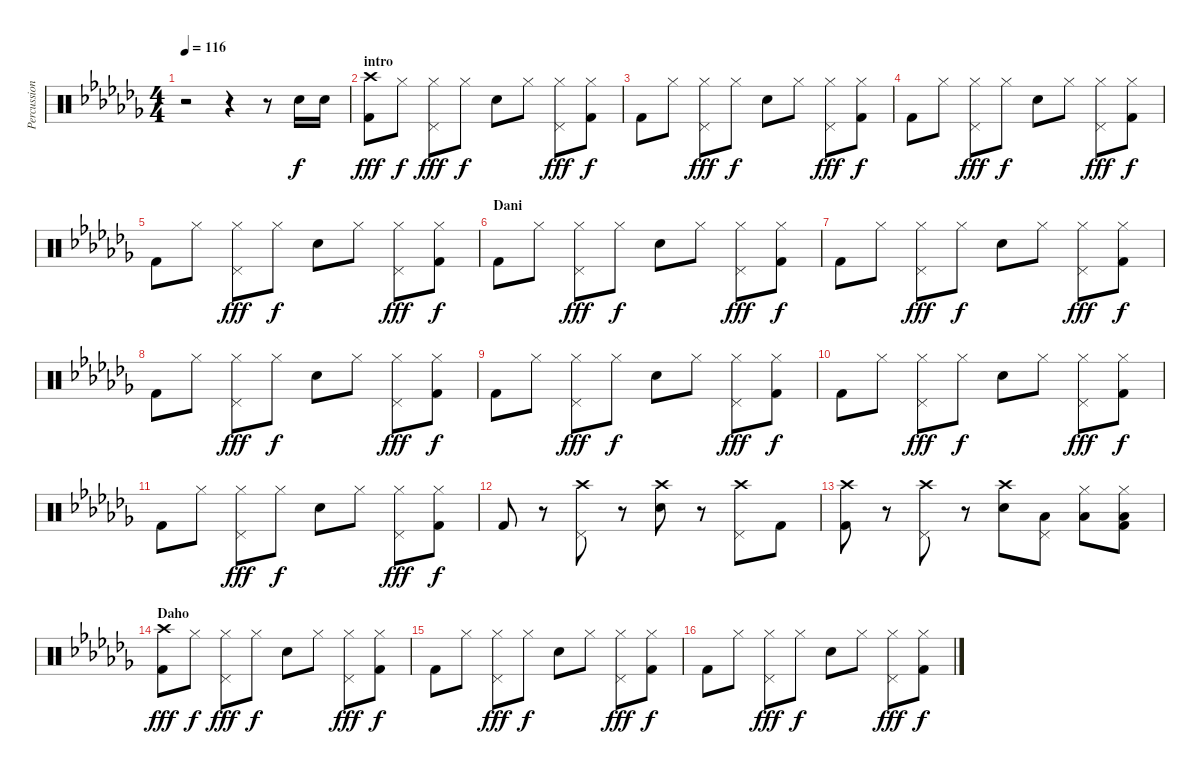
\track ("Percussions" "Percussion") {instrument percussion}
\staff {score}
\articulation defaults
\ts (4 4)
\tempo 116
\clef neutral
\ks abminor
r.2{dy f} r.4 r.8 "Snare (hit) 2".16 "Snare (hit) 2".16 |
\section ("" "intro")
("Crash high (hit)" "Kick (hit) 2").8{dy fff} "Hi-Hat (closed)".8{dy f} ("Hi-Hat (closed)" "Pedal Hi-Hat (hit)").8{dy fff} "Hi-Hat (closed)".8{dy f} "Snare (hit) 2".8 "Hi-Hat (closed)".8 ("Hi-Hat (closed)" "Pedal Hi-Hat (hit)").8{dy fff} ("Hi-Hat (closed)" "Kick (hit) 2").8{dy f} |
"Kick (hit) 2".8 "Hi-Hat (closed)".8 ("Hi-Hat (closed)" "Pedal Hi-Hat (hit)").8{dy fff} "Hi-Hat (closed)".8{dy f} "Snare (hit) 2".8 "Hi-Hat (closed)".8 ("Hi-Hat (closed)" "Pedal Hi-Hat (hit)").8{dy fff} ("Hi-Hat (closed)" "Kick (hit) 2").8{dy f} |
"Kick (hit) 2".8 "Hi-Hat (closed)".8 ("Hi-Hat (closed)" "Pedal Hi-Hat (hit)").8{dy fff} "Hi-Hat (closed)".8{dy f} "Snare (hit) 2".8 "Hi-Hat (closed)".8 ("Hi-Hat (closed)" "Pedal Hi-Hat (hit)").8{dy fff} ("Hi-Hat (closed)" "Kick (hit) 2").8{dy f} |
"Kick (hit) 2".8 "Hi-Hat (closed)".8 ("Hi-Hat (closed)" "Pedal Hi-Hat (hit)").8{dy fff} "Hi-Hat (closed)".8{dy f} "Snare (hit) 2".8 "Hi-Hat (closed)".8 ("Hi-Hat (closed)" "Pedal Hi-Hat (hit)").8{dy fff} ("Hi-Hat (closed)" "Kick (hit) 2").8{dy f} |
\section ("" "Dani")
"Kick (hit) 2".8 "Hi-Hat (closed)".8 ("Hi-Hat (closed)" "Pedal Hi-Hat (hit)").8{dy fff} "Hi-Hat (closed)".8{dy f} "Snare (hit) 2".8 "Hi-Hat (closed)".8 ("Hi-Hat (closed)" "Pedal Hi-Hat (hit)").8{dy fff} ("Hi-Hat (closed)" "Kick (hit) 2").8{dy f} |
"Kick (hit) 2".8 "Hi-Hat (closed)".8 ("Hi-Hat (closed)" "Pedal Hi-Hat (hit)").8{dy fff} "Hi-Hat (closed)".8{dy f} "Snare (hit) 2".8 "Hi-Hat (closed)".8 ("Hi-Hat (closed)" "Pedal Hi-Hat (hit)").8{dy fff} ("Hi-Hat (closed)" "Kick (hit) 2").8{dy f} |
"Kick (hit) 2".8 "Hi-Hat (closed)".8 ("Hi-Hat (closed)" "Pedal Hi-Hat (hit)").8{dy fff} "Hi-Hat (closed)".8{dy f} "Snare (hit) 2".8 "Hi-Hat (closed)".8 ("Hi-Hat (closed)" "Pedal Hi-Hat (hit)").8{dy fff} ("Hi-Hat (closed)" "Kick (hit) 2").8{dy f} |
"Kick (hit) 2".8 "Hi-Hat (closed)".8 ("Hi-Hat (closed)" "Pedal Hi-Hat (hit)").8{dy fff} "Hi-Hat (closed)".8{dy f} "Snare (hit) 2".8 "Hi-Hat (closed)".8 ("Hi-Hat (closed)" "Pedal Hi-Hat (hit)").8{dy fff} ("Hi-Hat (closed)" "Kick (hit) 2").8{dy f} |
"Kick (hit) 2".8 "Hi-Hat (closed)".8 ("Hi-Hat (closed)" "Pedal Hi-Hat (hit)").8{dy fff} "Hi-Hat (closed)".8{dy f} "Snare (hit) 2".8 "Hi-Hat (closed)".8 ("Hi-Hat (closed)" "Pedal Hi-Hat (hit)").8{dy fff} ("Hi-Hat (closed)" "Kick (hit) 2").8{dy f} |
"Kick (hit) 2".8 "Hi-Hat (closed)".8 ("Hi-Hat (closed)" "Pedal Hi-Hat (hit)").8{dy fff} "Hi-Hat (closed)".8{dy f} "Snare (hit) 2".8 "Hi-Hat (closed)".8 ("Hi-Hat (closed)" "Pedal Hi-Hat (hit)").8{dy fff} ("Hi-Hat (closed)" "Kick (hit) 2").8{dy f} |
"Kick (hit) 2".8 r.8 ("Crash high (hit)" "Pedal Hi-Hat (hit)").8 r.8 ("Crash high (hit)" "Snare (hit) 2").8 r.8 ("Crash high (hit)" "Pedal Hi-Hat (hit)").8 "Kick (hit) 2".8 |
("Crash high (hit)" "Kick (hit) 2").8 r.8 ("Crash high (hit)" "Pedal Hi-Hat (hit)").8 r.8 ("Crash high (hit)" "Snare (hit) 2").8 ("Pedal Hi-Hat (hit)" "Low Floor Tom (hit)").8 ("Hi-Hat (closed)" "Low Tom (hit)").8 ("Hi-Hat (closed)" "Low Floor Tom (hit)" "Kick (hit) 2").8 |
\section ("" "Daho")
("Crash high (hit)" "Kick (hit) 2").8{dy fff} "Hi-Hat (closed)".8{dy f} ("Hi-Hat (closed)" "Pedal Hi-Hat (hit)").8{dy fff} "Hi-Hat (closed)".8{dy f} "Snare (hit) 2".8 "Hi-Hat (closed)".8 ("Hi-Hat (closed)" "Pedal Hi-Hat (hit)").8{dy fff} ("Hi-Hat (closed)" "Kick (hit) 2").8{dy f} |
"Kick (hit) 2".8 "Hi-Hat (closed)".8 ("Hi-Hat (closed)" "Pedal Hi-Hat (hit)").8{dy fff} "Hi-Hat (closed)".8{dy f} "Snare (hit) 2".8 "Hi-Hat (closed)".8 ("Hi-Hat (closed)" "Pedal Hi-Hat (hit)").8{dy fff} ("Hi-Hat (closed)" "Kick (hit) 2").8{dy f} |
"Kick (hit) 2".8 "Hi-Hat (closed)".8 ("Hi-Hat (closed)" "Pedal Hi-Hat (hit)").8{dy fff} "Hi-Hat (closed)".8{dy f} "Snare (hit) 2".8 "Hi-Hat (closed)".8 ("Hi-Hat (closed)" "Pedal Hi-Hat (hit)").8{dy fff} ("Hi-Hat (closed)" "Kick (hit) 2").8{dy f}
